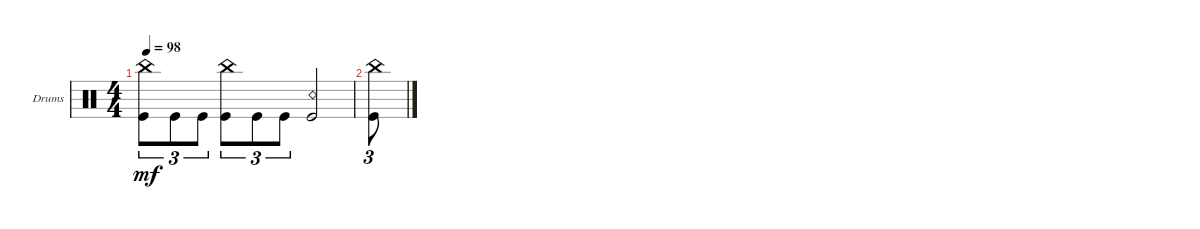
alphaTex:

\defaultSystemsLayout 4
\bracketExtendMode groupsimilarinstruments
\multiBarRest
\firstSystemTrackNameOrientation horizontal
\otherSystemsTrackNameOrientation horizontal
\track ("Drumkit" "Drums") {instrument percussion}
\staff {score}
\articulation defaults
\ts (4 4)
\tempo 98
\clef neutral
\ks c
("Kick (hit)" "China (hit)").8{tu (3 2) dy mf} "Kick (hit)".8{tu (3 2)} "Kick (hit)".8{tu (3 2)} ("Kick (hit)" "China (hit)").8{tu (3 2)} "Kick (hit)".8{tu (3 2)} "Kick (hit)".8{tu (3 2)} ("Snare (rim shot)" "Kick (hit)").2 |
("China (hit)" "Kick (hit)").8{tu (3 2)}
